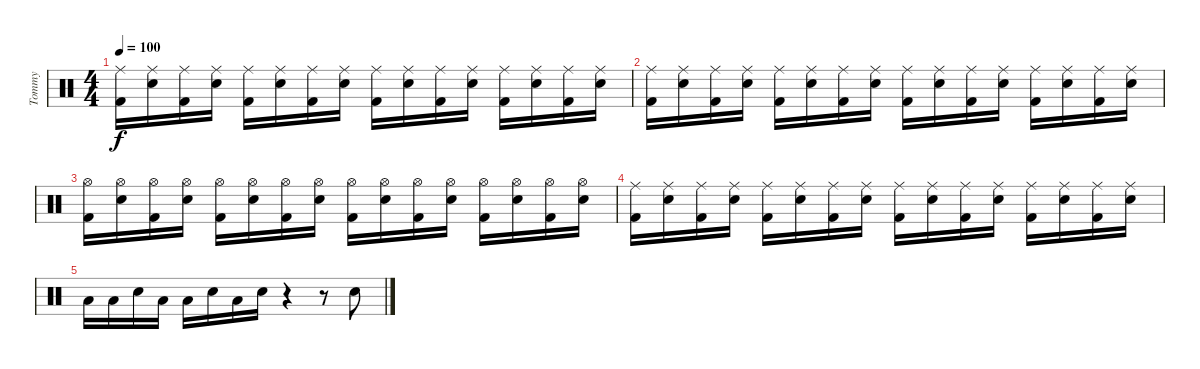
\track ("Tommy" "Tommy") {instrument percussion}
\staff {score}
\articulation defaults
\ts (4 4)
\tempo 100
\clef neutral
\ks c
("Ride (middle)" "Kick (hit) 2").16{dy f} ("Ride (middle)" "Snare (hit) 2").16 ("Ride (middle)" "Kick (hit) 2").16 ("Ride (middle)" "Snare (hit) 2").16 ("Ride (middle)" "Kick (hit) 2").16 ("Ride (middle)" "Snare (hit) 2").16 ("Ride (middle)" "Kick (hit) 2").16 ("Ride (middle)" "Snare (hit) 2").16 ("Ride (middle)" "Kick (hit) 2").16 ("Ride (middle)" "Snare (hit) 2").16 ("Ride (middle)" "Kick (hit) 2").16 ("Ride (middle)" "Snare (hit) 2").16 ("Ride (middle)" "Kick (hit) 2").16 ("Ride (middle)" "Snare (hit) 2").16 ("Ride (middle)" "Kick (hit) 2").16 ("Ride (middle)" "Snare (hit) 2").16 |
("Ride (middle)" "Kick (hit) 2").16 ("Ride (middle)" "Snare (hit) 2").16 ("Ride (middle)" "Kick (hit) 2").16 ("Ride (middle)" "Snare (hit) 2").16 ("Ride (middle)" "Kick (hit) 2").16 ("Ride (middle)" "Snare (hit) 2").16 ("Ride (middle)" "Kick (hit) 2").16 ("Ride (middle)" "Snare (hit) 2").16 ("Ride (middle)" "Kick (hit) 2").16 ("Ride (middle)" "Snare (hit) 2").16 ("Ride (middle)" "Kick (hit) 2").16 ("Ride (middle)" "Snare (hit) 2").16 ("Ride (middle)" "Kick (hit) 2").16 ("Ride (middle)" "Snare (hit) 2").16 ("Ride (middle)" "Kick (hit) 2").16 ("Ride (middle)" "Snare (hit) 2").16 |
("Hi-Hat (open)" "Kick (hit) 2").16 ("Hi-Hat (open)" "Snare (hit) 2").16 ("Hi-Hat (open)" "Kick (hit) 2").16 ("Hi-Hat (open)" "Snare (hit) 2").16 ("Hi-Hat (open)" "Kick (hit) 2").16 ("Hi-Hat (open)" "Snare (hit) 2").16 ("Hi-Hat (open)" "Kick (hit) 2").16 ("Hi-Hat (open)" "Snare (hit) 2").16 ("Hi-Hat (open)" "Kick (hit) 2").16 ("Hi-Hat (open)" "Snare (hit) 2").16 ("Hi-Hat (open)" "Kick (hit) 2").16 ("Hi-Hat (open)" "Snare (hit) 2").16 ("Hi-Hat (open)" "Kick (hit) 2").16 ("Hi-Hat (open)" "Snare (hit) 2").16 ("Hi-Hat (open)" "Kick (hit) 2").16 ("Hi-Hat (open)" "Snare (hit) 2").16 |
("Ride (middle)" "Kick (hit) 2").16 ("Ride (middle)" "Snare (hit) 2").16 ("Ride (middle)" "Kick (hit) 2").16 ("Ride (middle)" "Snare (hit) 2").16 ("Ride (middle)" "Kick (hit) 2").16 ("Ride (middle)" "Snare (hit) 2").16 ("Ride (middle)" "Kick (hit) 2").16 ("Ride (middle)" "Snare (hit) 2").16 ("Ride (middle)" "Kick (hit) 2").16 ("Ride (middle)" "Snare (hit) 2").16 ("Ride (middle)" "Kick (hit) 2").16 ("Ride (middle)" "Snare (hit) 2").16 ("Ride (middle)" "Kick (hit) 2").16 ("Ride (middle)" "Snare (hit) 2").16 ("Ride (middle)" "Kick (hit) 2").16 ("Ride (middle)" "Snare (hit) 2").16 |
"Low Tom (hit)".16 "Low Tom (hit)".16 "Snare (hit) 2".16 "Low Tom (hit)".16 "Low Tom (hit)".16 "Snare (hit) 2".16 "Low Tom (hit)".16 "Snare (hit) 2".16 r.4 r.8 "Snare (hit) 2".8
